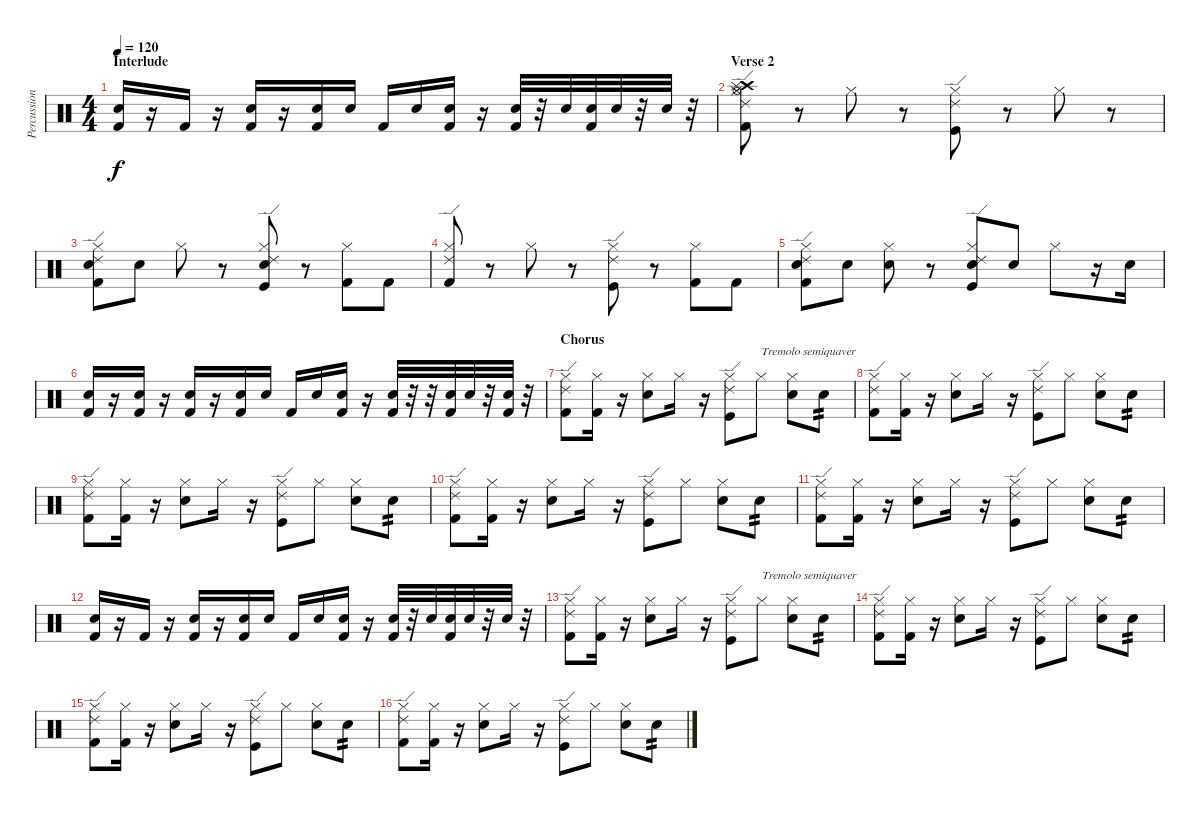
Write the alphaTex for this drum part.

\track ("Percussions" "Percussion") {instrument percussion}
\staff {score}
\articulation defaults
\ts (4 4)
\section ("" "Interlude")
\tempo 120
\clef neutral
\ks c
("Electric Snare (hit)" "Kick (hit) 2").16{dy f} r.16 "Kick (hit) 2".16 r.16 ("Electric Snare (hit)" "Kick (hit) 2").16 r.16 ("Electric Snare (hit)" "Kick (hit) 2").16 "Electric Snare (hit)".16 "Kick (hit) 2".16 "Electric Snare (hit)".16 ("Electric Snare (hit)" "Kick (hit) 2").16 r.16 ("Electric Snare (hit)" "Kick (hit) 2").32 r.32 "Electric Snare (hit)".32 ("Electric Snare (hit)" "Kick (hit) 2").32 "Electric Snare (hit)".32 r.32 "Electric Snare (hit)".32 r.32 |
\section ("" "Verse 2")
("Hi-Hat (closed)" "Crash high (hit)" "Splash (hit)" "Ride (edge) 2" "Hi-Hat (open)" "Kick (hit) 2").8 r.8 "Hi-Hat (closed)".8 r.8 ("Hi-Hat (closed)" "Ride (edge) 2" "Kick (hit)").8 r.8 "Hi-Hat (closed)".8 r.8 |
("Hi-Hat (closed)" "Electric Snare (hit)" "Ride (edge) 2" "Kick (hit) 2").8 "Electric Snare (hit)".8 "Hi-Hat (closed)".8 r.8 ("Hi-Hat (closed)" "Electric Snare (hit)" "Ride (edge) 2" "Kick (hit)").8 r.8 ("Hi-Hat (closed)" "Kick (hit) 2").8 "Kick (hit) 2".8 |
("Hi-Hat (closed)" "Ride (edge) 2" "Kick (hit) 2").8 r.8 "Hi-Hat (closed)".8 r.8 ("Hi-Hat (closed)" "Ride (edge) 2" "Kick (hit)").8 r.8 ("Hi-Hat (closed)" "Kick (hit) 2").8 "Kick (hit) 2".8 |
("Hi-Hat (closed)" "Electric Snare (hit)" "Ride (edge) 2" "Kick (hit) 2").8 "Electric Snare (hit)".8 ("Hi-Hat (closed)" "Electric Snare (hit)").8 r.8 ("Hi-Hat (closed)" "Electric Snare (hit)" "Ride (edge) 2" "Kick (hit)").8 "Electric Snare (hit)".8 "Hi-Hat (closed)".8 r.16 "Electric Snare (hit)".16 |
("Electric Snare (hit)" "Kick (hit) 2").16 r.16 ("Electric Snare (hit)" "Kick (hit) 2").16 r.16 ("Electric Snare (hit)" "Kick (hit) 2").16 r.16 ("Electric Snare (hit)" "Kick (hit) 2").16 "Electric Snare (hit)".16 "Kick (hit) 2".16 "Electric Snare (hit)".16 ("Electric Snare (hit)" "Kick (hit) 2").16 r.16 ("Electric Snare (hit)" "Kick (hit) 2").32 r.32 r.32 ("Electric Snare (hit)" "Kick (hit) 2").32 "Electric Snare (hit)".32 r.32 ("Electric Snare (hit)" "Kick (hit) 2").32 r.32 |
\section ("" "Chorus")
("Hi-Hat (closed)" "Ride (edge) 2" "Kick (hit) 2").8 ("Hi-Hat (closed)" "Kick (hit) 2").16 r.16 ("Hi-Hat (closed)" "Snare (hit) 2").8 "Hi-Hat (closed)".16 r.16 ("Hi-Hat (closed)" "Ride (edge) 2" "Kick (hit)").8 "Hi-Hat (closed)".8{txt "Tremolo semiquaver"} ("Hi-Hat (closed)" "Snare (hit) 2").8 "Electric Snare (hit)".8{tp 2} |
("Hi-Hat (closed)" "Ride (edge) 2" "Kick (hit) 2").8 ("Hi-Hat (closed)" "Kick (hit) 2").16 r.16 ("Hi-Hat (closed)" "Snare (hit) 2").8 "Hi-Hat (closed)".16 r.16 ("Hi-Hat (closed)" "Ride (edge) 2" "Kick (hit)").8 "Hi-Hat (closed)".8 ("Hi-Hat (closed)" "Snare (hit) 2").8 "Electric Snare (hit)".8{tp 2} |
("Hi-Hat (closed)" "Ride (edge) 2" "Kick (hit) 2").8 ("Hi-Hat (closed)" "Kick (hit) 2").16 r.16 ("Hi-Hat (closed)" "Snare (hit) 2").8 "Hi-Hat (closed)".16 r.16 ("Hi-Hat (closed)" "Ride (edge) 2" "Kick (hit)").8 "Hi-Hat (closed)".8 ("Hi-Hat (closed)" "Snare (hit) 2").8 "Electric Snare (hit)".8{tp 2} |
("Hi-Hat (closed)" "Ride (edge) 2" "Kick (hit) 2").8 ("Hi-Hat (closed)" "Kick (hit) 2").16 r.16 ("Hi-Hat (closed)" "Snare (hit) 2").8 "Hi-Hat (closed)".16 r.16 ("Hi-Hat (closed)" "Ride (edge) 2" "Kick (hit)").8 "Hi-Hat (closed)".8 ("Hi-Hat (closed)" "Snare (hit) 2").8 "Electric Snare (hit)".8{tp 2} |
("Hi-Hat (closed)" "Ride (edge) 2" "Kick (hit) 2").8 ("Hi-Hat (closed)" "Kick (hit) 2").16 r.16 ("Hi-Hat (closed)" "Snare (hit) 2").8 "Hi-Hat (closed)".16 r.16 ("Hi-Hat (closed)" "Ride (edge) 2" "Kick (hit)").8 "Hi-Hat (closed)".8 ("Hi-Hat (closed)" "Snare (hit) 2").8 "Electric Snare (hit)".8{tp 2} |
("Electric Snare (hit)" "Kick (hit) 2").16 r.16 "Kick (hit) 2".16 r.16 ("Electric Snare (hit)" "Kick (hit) 2").16 r.16 ("Electric Snare (hit)" "Kick (hit) 2").16 "Electric Snare (hit)".16 "Kick (hit) 2".16 "Electric Snare (hit)".16 ("Electric Snare (hit)" "Kick (hit) 2").16 r.16 ("Electric Snare (hit)" "Kick (hit) 2").32 r.32 "Electric Snare (hit)".32 ("Electric Snare (hit)" "Kick (hit) 2").32 "Electric Snare (hit)".32 r.32 "Electric Snare (hit)".32 r.32 |
("Hi-Hat (closed)" "Ride (edge) 2" "Kick (hit) 2").8 ("Hi-Hat (closed)" "Kick (hit) 2").16 r.16 ("Hi-Hat (closed)" "Snare (hit) 2").8 "Hi-Hat (closed)".16 r.16 ("Hi-Hat (closed)" "Ride (edge) 2" "Kick (hit)").8 "Hi-Hat (closed)".8{txt "Tremolo semiquaver"} ("Hi-Hat (closed)" "Snare (hit) 2").8 "Electric Snare (hit)".8{tp 2} |
("Hi-Hat (closed)" "Ride (edge) 2" "Kick (hit) 2").8 ("Hi-Hat (closed)" "Kick (hit) 2").16 r.16 ("Hi-Hat (closed)" "Snare (hit) 2").8 "Hi-Hat (closed)".16 r.16 ("Hi-Hat (closed)" "Ride (edge) 2" "Kick (hit)").8 "Hi-Hat (closed)".8 ("Hi-Hat (closed)" "Snare (hit) 2").8 "Electric Snare (hit)".8{tp 2} |
("Hi-Hat (closed)" "Ride (edge) 2" "Kick (hit) 2").8 ("Hi-Hat (closed)" "Kick (hit) 2").16 r.16 ("Hi-Hat (closed)" "Snare (hit) 2").8 "Hi-Hat (closed)".16 r.16 ("Hi-Hat (closed)" "Ride (edge) 2" "Kick (hit)").8 "Hi-Hat (closed)".8 ("Hi-Hat (closed)" "Snare (hit) 2").8 "Electric Snare (hit)".8{tp 2} |
("Hi-Hat (closed)" "Ride (edge) 2" "Kick (hit) 2").8 ("Hi-Hat (closed)" "Kick (hit) 2").16 r.16 ("Hi-Hat (closed)" "Snare (hit) 2").8 "Hi-Hat (closed)".16 r.16 ("Hi-Hat (closed)" "Ride (edge) 2" "Kick (hit)").8 "Hi-Hat (closed)".8 ("Hi-Hat (closed)" "Snare (hit) 2").8 "Electric Snare (hit)".8{tp 2}
